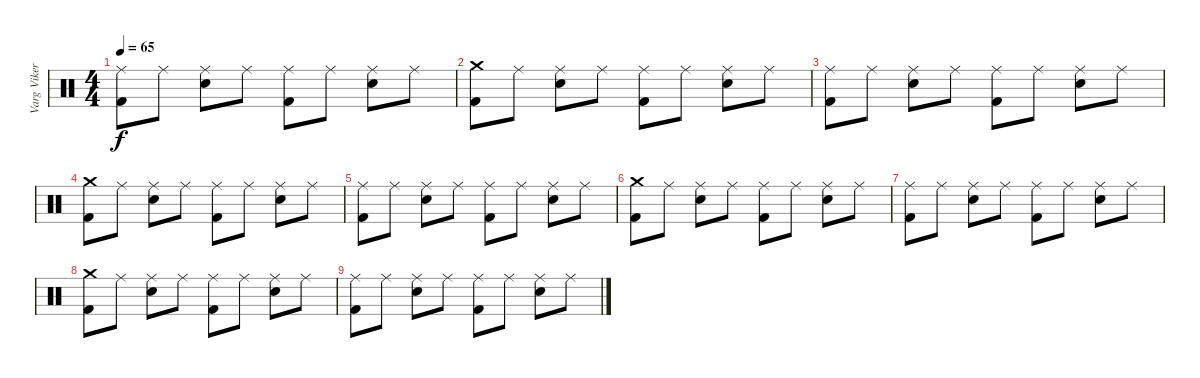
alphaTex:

\track ("Varg Vikernes" "Varg Viker") {instrument percussion}
\staff {score}
\articulation defaults
\ts (4 4)
\tempo 65
\clef neutral
\ks c
("Ride (middle)" "Kick (hit) 2").8{dy f} "Ride (middle)".8 ("Ride (middle)" "Snare (hit) 2").8 "Ride (middle)".8 ("Ride (middle)" "Kick (hit) 2").8 "Ride (middle)".8 ("Ride (middle)" "Snare (hit) 2").8 "Ride (middle)".8 |
("Crash medium (hit)" "Kick (hit) 2").8 "Ride (middle)".8 ("Ride (middle)" "Snare (hit) 2").8 "Ride (middle)".8 ("Ride (middle)" "Kick (hit) 2").8 "Ride (middle)".8 ("Ride (middle)" "Snare (hit) 2").8 "Ride (middle)".8 |
("Ride (middle)" "Kick (hit) 2").8 "Ride (middle)".8 ("Ride (middle)" "Snare (hit) 2").8 "Ride (middle)".8 ("Ride (middle)" "Kick (hit) 2").8 "Ride (middle)".8 ("Ride (middle)" "Snare (hit) 2").8 "Ride (middle)".8 |
("Crash medium (hit)" "Kick (hit) 2").8 "Ride (middle)".8 ("Ride (middle)" "Snare (hit) 2").8 "Ride (middle)".8 ("Ride (middle)" "Kick (hit) 2").8 "Ride (middle)".8 ("Ride (middle)" "Snare (hit) 2").8 "Ride (middle)".8 |
("Ride (middle)" "Kick (hit) 2").8 "Ride (middle)".8 ("Ride (middle)" "Snare (hit) 2").8 "Ride (middle)".8 ("Ride (middle)" "Kick (hit) 2").8 "Ride (middle)".8 ("Ride (middle)" "Snare (hit) 2").8 "Ride (middle)".8 |
("Crash medium (hit)" "Kick (hit) 2").8 "Ride (middle)".8 ("Ride (middle)" "Snare (hit) 2").8 "Ride (middle)".8 ("Ride (middle)" "Kick (hit) 2").8 "Ride (middle)".8 ("Ride (middle)" "Snare (hit) 2").8 "Ride (middle)".8 |
("Ride (middle)" "Kick (hit) 2").8 "Ride (middle)".8 ("Ride (middle)" "Snare (hit) 2").8 "Ride (middle)".8 ("Ride (middle)" "Kick (hit) 2").8 "Ride (middle)".8 ("Ride (middle)" "Snare (hit) 2").8 "Ride (middle)".8 |
("Crash medium (hit)" "Kick (hit) 2").8 "Ride (middle)".8 ("Ride (middle)" "Snare (hit) 2").8 "Ride (middle)".8 ("Ride (middle)" "Kick (hit) 2").8 "Ride (middle)".8 ("Ride (middle)" "Snare (hit) 2").8 "Ride (middle)".8 |
("Ride (middle)" "Kick (hit) 2").8 "Ride (middle)".8 ("Ride (middle)" "Snare (hit) 2").8 "Ride (middle)".8 ("Ride (middle)" "Kick (hit) 2").8 "Ride (middle)".8 ("Ride (middle)" "Snare (hit) 2").8 "Ride (middle)".8
